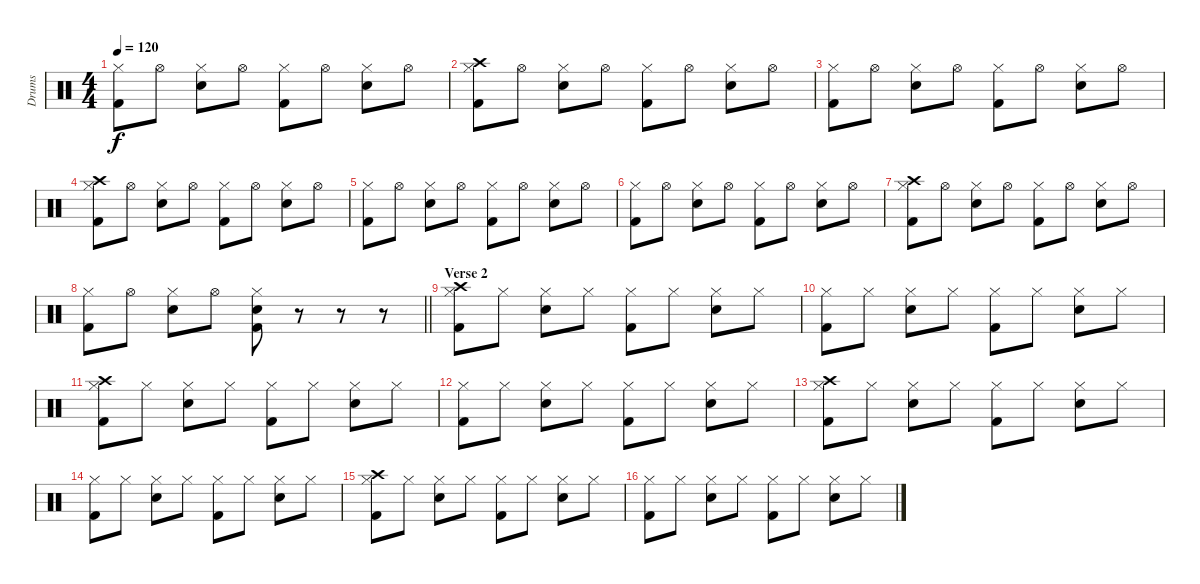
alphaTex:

\track ("Drums" "Drums") {instrument percussion}
\staff {score}
\articulation defaults
\ts (4 4)
\tempo 120
\clef neutral
\ks c
("Hi-Hat (closed)" "Kick (hit) 2").8{dy f} "Hi-Hat (open)".8 ("Hi-Hat (closed)" "Snare (hit) 2").8 "Hi-Hat (open)".8 ("Hi-Hat (closed)" "Kick (hit) 2").8 "Hi-Hat (open)".8 ("Hi-Hat (closed)" "Snare (hit) 2").8 "Hi-Hat (open)".8 |
("Crash high (hit)" "Hi-Hat (closed)" "Kick (hit) 2").8 "Hi-Hat (open)".8 ("Hi-Hat (closed)" "Snare (hit) 2").8 "Hi-Hat (open)".8 ("Hi-Hat (closed)" "Kick (hit) 2").8 "Hi-Hat (open)".8 ("Hi-Hat (closed)" "Snare (hit) 2").8 "Hi-Hat (open)".8 |
("Hi-Hat (closed)" "Kick (hit) 2").8 "Hi-Hat (open)".8 ("Hi-Hat (closed)" "Snare (hit) 2").8 "Hi-Hat (open)".8 ("Hi-Hat (closed)" "Kick (hit) 2").8 "Hi-Hat (open)".8 ("Hi-Hat (closed)" "Snare (hit) 2").8 "Hi-Hat (open)".8 |
("Crash high (hit)" "Hi-Hat (closed)" "Kick (hit) 2").8 "Hi-Hat (open)".8 ("Hi-Hat (closed)" "Snare (hit) 2").8 "Hi-Hat (open)".8 ("Hi-Hat (closed)" "Kick (hit) 2").8 "Hi-Hat (open)".8 ("Hi-Hat (closed)" "Snare (hit) 2").8 "Hi-Hat (open)".8 |
("Hi-Hat (closed)" "Kick (hit) 2").8 "Hi-Hat (open)".8 ("Hi-Hat (closed)" "Snare (hit) 2").8 "Hi-Hat (open)".8 ("Hi-Hat (closed)" "Kick (hit) 2").8 "Hi-Hat (open)".8 ("Hi-Hat (closed)" "Snare (hit) 2").8 "Hi-Hat (open)".8 |
("Hi-Hat (closed)" "Kick (hit) 2").8 "Hi-Hat (open)".8 ("Hi-Hat (closed)" "Snare (hit) 2").8 "Hi-Hat (open)".8 ("Hi-Hat (closed)" "Kick (hit) 2").8 "Hi-Hat (open)".8 ("Hi-Hat (closed)" "Snare (hit) 2").8 "Hi-Hat (open)".8 |
("Crash high (hit)" "Hi-Hat (closed)" "Kick (hit) 2").8 "Hi-Hat (open)".8 ("Hi-Hat (closed)" "Snare (hit) 2").8 "Hi-Hat (open)".8 ("Hi-Hat (closed)" "Kick (hit) 2").8 "Hi-Hat (open)".8 ("Hi-Hat (closed)" "Snare (hit) 2").8 "Hi-Hat (open)".8 |
\barLineRight lightlight
("Hi-Hat (closed)" "Kick (hit) 2").8 "Hi-Hat (open)".8 ("Hi-Hat (closed)" "Snare (hit) 2").8 "Hi-Hat (open)".8 ("Hi-Hat (closed)" "Snare (hit) 2" "Kick (hit) 2").8 r.8 r.8 r.8 |
\section ("" "Verse 2")
("Crash high (hit)" "Hi-Hat (closed)" "Kick (hit) 2").8 "Hi-Hat (closed)".8 ("Hi-Hat (closed)" "Snare (hit) 2").8 "Hi-Hat (closed)".8 ("Hi-Hat (closed)" "Kick (hit) 2").8 "Hi-Hat (closed)".8 ("Hi-Hat (closed)" "Snare (hit) 2").8 "Hi-Hat (closed)".8 |
("Hi-Hat (closed)" "Kick (hit) 2").8 "Hi-Hat (closed)".8 ("Hi-Hat (closed)" "Snare (hit) 2").8 "Hi-Hat (closed)".8 ("Hi-Hat (closed)" "Kick (hit) 2").8 "Hi-Hat (closed)".8 ("Hi-Hat (closed)" "Snare (hit) 2").8 "Hi-Hat (closed)".8 |
("Crash high (hit)" "Hi-Hat (closed)" "Kick (hit) 2").8 "Hi-Hat (closed)".8 ("Hi-Hat (closed)" "Snare (hit) 2").8 "Hi-Hat (closed)".8 ("Hi-Hat (closed)" "Kick (hit) 2").8 "Hi-Hat (closed)".8 ("Hi-Hat (closed)" "Snare (hit) 2").8 "Hi-Hat (closed)".8 |
("Hi-Hat (closed)" "Kick (hit) 2").8 "Hi-Hat (closed)".8 ("Hi-Hat (closed)" "Snare (hit) 2").8 "Hi-Hat (closed)".8 ("Hi-Hat (closed)" "Kick (hit) 2").8 "Hi-Hat (closed)".8 ("Hi-Hat (closed)" "Snare (hit) 2").8 "Hi-Hat (closed)".8 |
("Crash high (hit)" "Hi-Hat (closed)" "Kick (hit) 2").8 "Hi-Hat (closed)".8 ("Hi-Hat (closed)" "Snare (hit) 2").8 "Hi-Hat (closed)".8 ("Hi-Hat (closed)" "Kick (hit) 2").8 "Hi-Hat (closed)".8 ("Hi-Hat (closed)" "Snare (hit) 2").8 "Hi-Hat (closed)".8 |
("Hi-Hat (closed)" "Kick (hit) 2").8 "Hi-Hat (closed)".8 ("Hi-Hat (closed)" "Snare (hit) 2").8 "Hi-Hat (closed)".8 ("Hi-Hat (closed)" "Kick (hit) 2").8 "Hi-Hat (closed)".8 ("Hi-Hat (closed)" "Snare (hit) 2").8 "Hi-Hat (closed)".8 |
("Crash high (hit)" "Hi-Hat (closed)" "Kick (hit) 2").8 "Hi-Hat (closed)".8 ("Hi-Hat (closed)" "Snare (hit) 2").8 "Hi-Hat (closed)".8 ("Hi-Hat (closed)" "Kick (hit) 2").8 "Hi-Hat (closed)".8 ("Hi-Hat (closed)" "Snare (hit) 2").8 "Hi-Hat (closed)".8 |
("Hi-Hat (closed)" "Kick (hit) 2").8 "Hi-Hat (closed)".8 ("Hi-Hat (closed)" "Snare (hit) 2").8 "Hi-Hat (closed)".8 ("Hi-Hat (closed)" "Kick (hit) 2").8 "Hi-Hat (closed)".8 ("Hi-Hat (closed)" "Snare (hit) 2").8 "Hi-Hat (closed)".8
